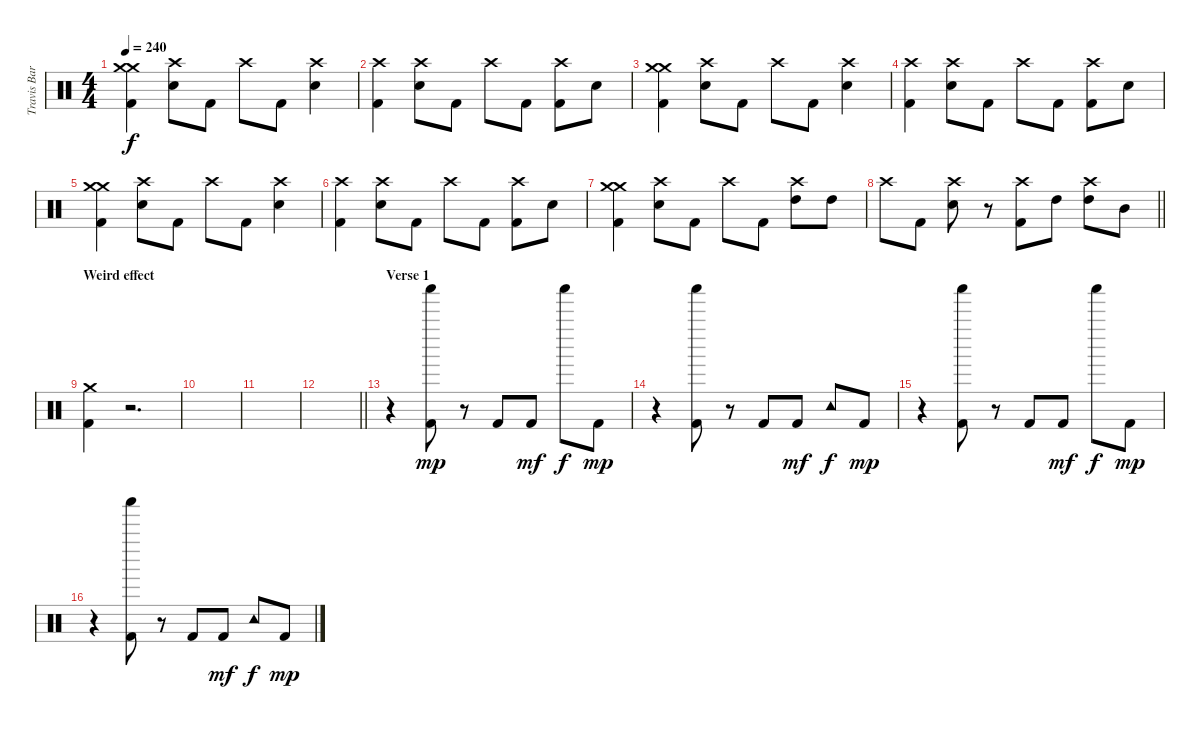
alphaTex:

\track ("Travis Barker - Drums" "Travis Bar") {instrument percussion}
\staff {score}
\articulation defaults
\ts (4 4)
\tempo 240
\clef neutral
\ks c
("Crash medium (hit)" "Crash medium (hit)" "Kick (hit) 2").4{dy f} ("Crash high (hit)" "Electric Snare (hit)").8 "Kick (hit) 2".8 "Crash high (hit)".8 "Kick (hit) 2".8 ("Crash high (hit)" "Electric Snare (hit)").4 |
("Crash high (hit)" "Kick (hit) 2").4 ("Crash high (hit)" "Electric Snare (hit)").8 "Kick (hit) 2".8 "Crash high (hit)".8 "Kick (hit) 2".8 ("Crash high (hit)" "Kick (hit) 2").8 "Electric Snare (hit)".8 |
("Crash medium (hit)" "Crash medium (hit)" "Kick (hit) 2").4 ("Crash high (hit)" "Electric Snare (hit)").8 "Kick (hit) 2".8 "Crash high (hit)".8 "Kick (hit) 2".8 ("Crash high (hit)" "Electric Snare (hit)").4 |
("Crash high (hit)" "Kick (hit) 2").4 ("Crash high (hit)" "Electric Snare (hit)").8 "Kick (hit) 2".8 "Crash high (hit)".8 "Kick (hit) 2".8 ("Crash high (hit)" "Kick (hit) 2").8 "Electric Snare (hit)".8 |
("Crash medium (hit)" "Crash medium (hit)" "Kick (hit) 2").4 ("Crash high (hit)" "Electric Snare (hit)").8 "Kick (hit) 2".8 "Crash high (hit)".8 "Kick (hit) 2".8 ("Crash high (hit)" "Electric Snare (hit)").4 |
("Crash high (hit)" "Kick (hit) 2").4 ("Crash high (hit)" "Electric Snare (hit)").8 "Kick (hit) 2".8 "Crash high (hit)".8 "Kick (hit) 2".8 ("Crash high (hit)" "Kick (hit) 2").8 "Electric Snare (hit)".8 |
("Crash medium (hit)" "Crash medium (hit)" "Kick (hit) 2").4 ("Crash high (hit)" "Electric Snare (hit)").8 "Kick (hit) 2".8 "Crash high (hit)".8 "Kick (hit) 2".8 ("Crash high (hit)" "High Tom (hit)").8 "High Tom (hit)".8 |
\barLineRight lightlight "Crash high (hit)".8 "Kick (hit) 2".8
("Crash high (hit)" "Electric Snare (hit)").8 r.8 ("Crash high (hit)" "Kick (hit) 2").8 "High Tom (hit)".8 ("Crash high (hit)" "High Tom (hit)").8 "Mid Tom (hit)".8 |
\section ("" "Weird effect")
("Crash medium (hit)" "Kick (hit) 2").4 r.2{d} |
|
|
\barLineRight lightlight
|
\section ("" "Verse 1")
r.4 ("Shaker (hit)" "Kick (hit) 2").8{dy mp} r.8 "Kick (hit) 2".8 "Kick (hit) 2".8{dy mf} "Shaker (hit)".8{dy f} "Kick (hit) 2".8{dy mp} |
r.4 ("Shaker (hit)" "Kick (hit) 2").8 r.8 "Kick (hit) 2".8 "Kick (hit) 2".8{dy mf} "Tambourine (hit)".8{dy f} "Kick (hit) 2".8{dy mp} |
r.4 ("Shaker (hit)" "Kick (hit) 2").8 r.8 "Kick (hit) 2".8 "Kick (hit) 2".8{dy mf} "Shaker (hit)".8{dy f} "Kick (hit) 2".8{dy mp} |
r.4 ("Shaker (hit)" "Kick (hit) 2").8 r.8 "Kick (hit) 2".8 "Kick (hit) 2".8{dy mf} "Tambourine (hit)".8{dy f} "Kick (hit) 2".8{dy mp}
